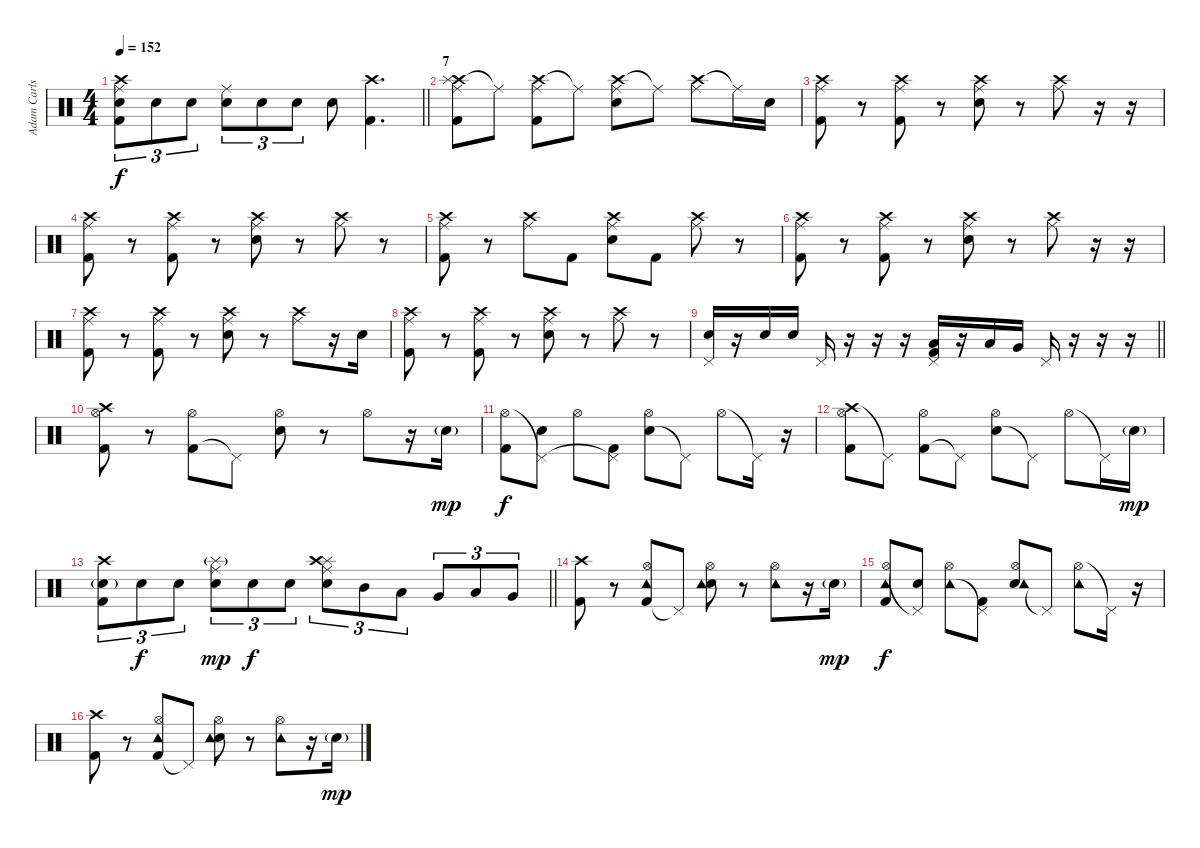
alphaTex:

\track ("Adam Carlson" "Adam Carls") {instrument percussion}
\staff {score}
\articulation defaults
\ts (4 4)
\tempo 152
\clef neutral
\barLineRight lightlight
\ks c
("Crash high (hit)" "Ride (middle)" "Snare (hit) 2" "Kick (hit) 2").8{tu (3 2) dy f} "Snare (hit) 2".8{tu (3 2)} "Snare (hit) 2".8{tu (3 2)} ("Ride (middle)" "Snare (hit) 2").8{tu (3 2)} "Snare (hit) 2".8{tu (3 2)} "Snare (hit) 2".8{tu (3 2)} "Snare (hit) 2".8 ("Kick (hit) 2" "Crash high (hit)").4{d} |
\section ("" "7")
("Crash high (hit)" "Splash (hit)" "Ride (middle)" "Kick (hit) 2").8 "Ride (middle)"{t}.8 ("Crash high (hit)" "Ride (middle)" "Kick (hit) 2").8 "Ride (middle)"{t}.8 ("Crash high (hit)" "Snare (hit) 2" "Ride (middle)").8 "Ride (middle)"{t}.8 ("Crash high (hit)" "Ride (middle)").8 "Ride (middle)"{t}.16 "Snare (hit) 2".16 |
("Crash high (hit)" "Ride (middle)" "Kick (hit) 2").8 r.8 ("Crash high (hit)" "Ride (middle)" "Kick (hit) 2").8 r.8 ("Crash high (hit)" "Snare (hit) 2" "Ride (middle)").8 r.8 ("Crash high (hit)" "Ride (middle)").8 r.16 r.16 |
("Crash high (hit)" "Ride (middle)" "Kick (hit) 2").8 r.8 ("Crash high (hit)" "Ride (middle)" "Kick (hit) 2").8 r.8 ("Crash high (hit)" "Snare (hit) 2" "Ride (middle)").8 r.8 ("Crash high (hit)" "Ride (middle)").8 r.8 |
("Crash high (hit)" "Ride (middle)" "Kick (hit) 2").8 r.8 ("Crash high (hit)" "Ride (middle)").8 "Kick (hit) 2".8 ("Crash high (hit)" "Snare (hit) 2" "Ride (middle)").8 "Kick (hit) 2".8 ("Crash high (hit)" "Ride (middle)").8 r.8 |
("Crash high (hit)" "Ride (middle)" "Kick (hit) 2").8 r.8 ("Crash high (hit)" "Ride (middle)" "Kick (hit) 2").8 r.8 ("Crash high (hit)" "Snare (hit) 2" "Ride (middle)").8 r.8 ("Crash high (hit)" "Ride (middle)").8 r.16 r.16 |
("Crash high (hit)" "Ride (middle)" "Kick (hit) 2").8 r.8 ("Crash high (hit)" "Ride (middle)" "Kick (hit) 2").8 r.8 ("Crash high (hit)" "Snare (hit) 2" "Ride (middle)").8 r.8 ("Crash high (hit)" "Ride (middle)").8 r.16 "Snare (hit) 2".16 |
("Crash high (hit)" "Ride (middle)" "Kick (hit) 2").8 r.8 ("Crash high (hit)" "Ride (middle)" "Kick (hit) 2").8 r.8 ("Crash high (hit)" "Snare (hit) 2" "Ride (middle)").8 r.8 ("Crash high (hit)" "Ride (middle)").8 r.8 |
\barLineRight lightlight
("Pedal Hi-Hat (hit)" "Snare (hit) 2").16 r.16 "Snare (hit) 2".16 "Snare (hit) 2".16 "Pedal Hi-Hat (hit)".16 r.16 r.16 r.16 ("Pedal Hi-Hat (hit)" "Low Tom (hit)" "Kick (hit) 2").16{bd 120} r.16 "Low Tom (hit)".16 "Very Low Tom (hit)".16 "Pedal Hi-Hat (hit)".16 r.16 r.16 r.16 |
("Crash high (hit)" "Kick (hit) 2" "Hi-Hat (open)").8 r.8 ("Kick (hit) 2" "Hi-Hat (open)").8 "Pedal Hi-Hat (hit)"{t}.8 ("Snare (hit) 2" "Hi-Hat (open)").8 r.8 "Hi-Hat (open)".8 r.16 "Snare (hit) 2"{g}.16{dy mp} |
("Kick (hit) 2" "Hi-Hat (open)").8{dy f} ("Snare (hit) 2" "Pedal Hi-Hat (hit)"{t}).8 "Hi-Hat (open)".8 ("Kick (hit) 2" "Pedal Hi-Hat (hit)"{t}).8 ("Snare (hit) 2" "Hi-Hat (open)").8 "Pedal Hi-Hat (hit)"{t}.8 "Hi-Hat (open)".8 "Pedal Hi-Hat (hit)"{t}.16 r.16 |
("Crash high (hit)" "Kick (hit) 2" "Hi-Hat (open)").8 "Pedal Hi-Hat (hit)"{t}.8 ("Kick (hit) 2" "Hi-Hat (open)").8 "Pedal Hi-Hat (hit)"{t}.8 ("Snare (hit) 2" "Hi-Hat (open)").8 "Pedal Hi-Hat (hit)"{t}.8 "Hi-Hat (open)".8 "Pedal Hi-Hat (hit)"{t}.16 "Snare (hit) 2"{g}.16{dy mp} |
\barLineRight lightlight
("Snare (hit) 2"{g} "Crash high (hit)" "Kick (hit) 2").8{tu (3 2)} "Snare (hit) 2".8{tu (3 2) dy f} "Snare (hit) 2".8{tu (3 2)} ("Snare (hit) 2" "Ride (middle)" "Splash (hit)"{g}).8{tu (3 2) dy mp} "Snare (hit) 2".8{tu (3 2) dy f} "Snare (hit) 2".8{tu (3 2)} ("Snare (hit) 2" "Ride (middle)" "Splash (hit)" "Crash high (hit)").8{tu (3 2)} "Mid Tom (hit)".8{tu (3 2)} "Low Tom (hit)".8{tu (3 2)} "Very Low Tom (hit)".8{tu (3 2)} "Low Tom (hit)".8{tu (3 2)} "Very Low Tom (hit)".8{tu (3 2)} |
("Crash high (hit)" "Kick (hit) 2").8 r.8 ("Kick (hit) 2" "Hi-Hat (open)" "Tambourine (hit)").8 "Pedal Hi-Hat (hit)"{t}.8 ("Snare (hit) 2" "Hi-Hat (open)" "Tambourine (hit)").8 r.8 ("Hi-Hat (open)" "Tambourine (hit)").8 r.16 "Snare (hit) 2"{g}.16{dy mp} |
("Kick (hit) 2" "Hi-Hat (open)" "Tambourine (hit)").8{dy f} ("Snare (hit) 2" "Pedal Hi-Hat (hit)"{t}).8 ("Hi-Hat (open)" "Tambourine (hit)").8 ("Kick (hit) 2" "Pedal Hi-Hat (hit)"{t}).8 ("Snare (hit) 2" "Hi-Hat (open)" "Tambourine (hit)").8 "Pedal Hi-Hat (hit)"{t}.8 ("Hi-Hat (open)" "Tambourine (hit)").8 "Pedal Hi-Hat (hit)"{t}.16 r.16 |
("Crash high (hit)" "Kick (hit) 2").8 r.8 ("Kick (hit) 2" "Hi-Hat (open)" "Tambourine (hit)").8 "Pedal Hi-Hat (hit)"{t}.8 ("Snare (hit) 2" "Hi-Hat (open)" "Tambourine (hit)").8 r.8 ("Hi-Hat (open)" "Tambourine (hit)").8 r.16 "Snare (hit) 2"{g}.16{dy mp}
